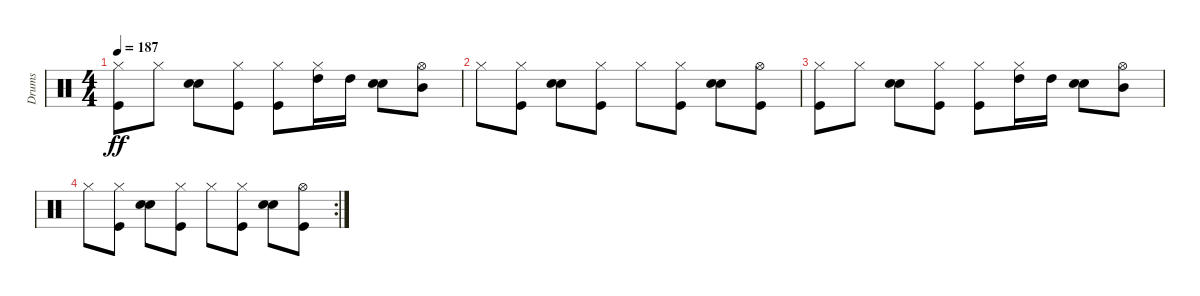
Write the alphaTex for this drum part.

\track ("Drums" "Drums") {instrument percussion}
\staff {score}
\articulation defaults
\ts (4 4)
\tempo 187
\clef neutral
\ks c
("Kick (hit)" "Hi-Hat (closed)").8{dy ff} "Hi-Hat (closed)".8 ("Snare (hit) 2" "Electric Snare (hit)").8 ("Kick (hit)" "Hi-Hat (closed)").8 ("Kick (hit)" "Hi-Hat (closed)").8 ("Hi-Hat (closed)" "High Tom (hit)").16 "High Tom (hit)".16 ("Snare (hit) 2" "Electric Snare (hit)").8 ("Hi-Hat (open)" "Mid Tom (hit)").8 |
"Hi-Hat (closed)".8 ("Kick (hit)" "Hi-Hat (closed)").8 ("Snare (hit) 2" "Electric Snare (hit)").8 ("Kick (hit)" "Hi-Hat (closed)").8 "Hi-Hat (closed)".8 ("Kick (hit)" "Hi-Hat (closed)").8 ("Snare (hit) 2" "Electric Snare (hit)").8 ("Kick (hit)" "Hi-Hat (open)").8 |
("Kick (hit)" "Hi-Hat (closed)").8 "Hi-Hat (closed)".8 ("Snare (hit) 2" "Electric Snare (hit)").8 ("Kick (hit)" "Hi-Hat (closed)").8 ("Kick (hit)" "Hi-Hat (closed)").8 ("Hi-Hat (closed)" "High Tom (hit)").16 "High Tom (hit)".16 ("Snare (hit) 2" "Electric Snare (hit)").8 ("Hi-Hat (open)" "Mid Tom (hit)").8 |
\rc 2 "Hi-Hat (closed)".8
("Kick (hit)" "Hi-Hat (closed)").8 ("Snare (hit) 2" "Electric Snare (hit)").8 ("Kick (hit)" "Hi-Hat (closed)").8 "Hi-Hat (closed)".8 ("Kick (hit)" "Hi-Hat (closed)").8 ("Snare (hit) 2" "Electric Snare (hit)").8 ("Kick (hit)" "Hi-Hat (open)").8
